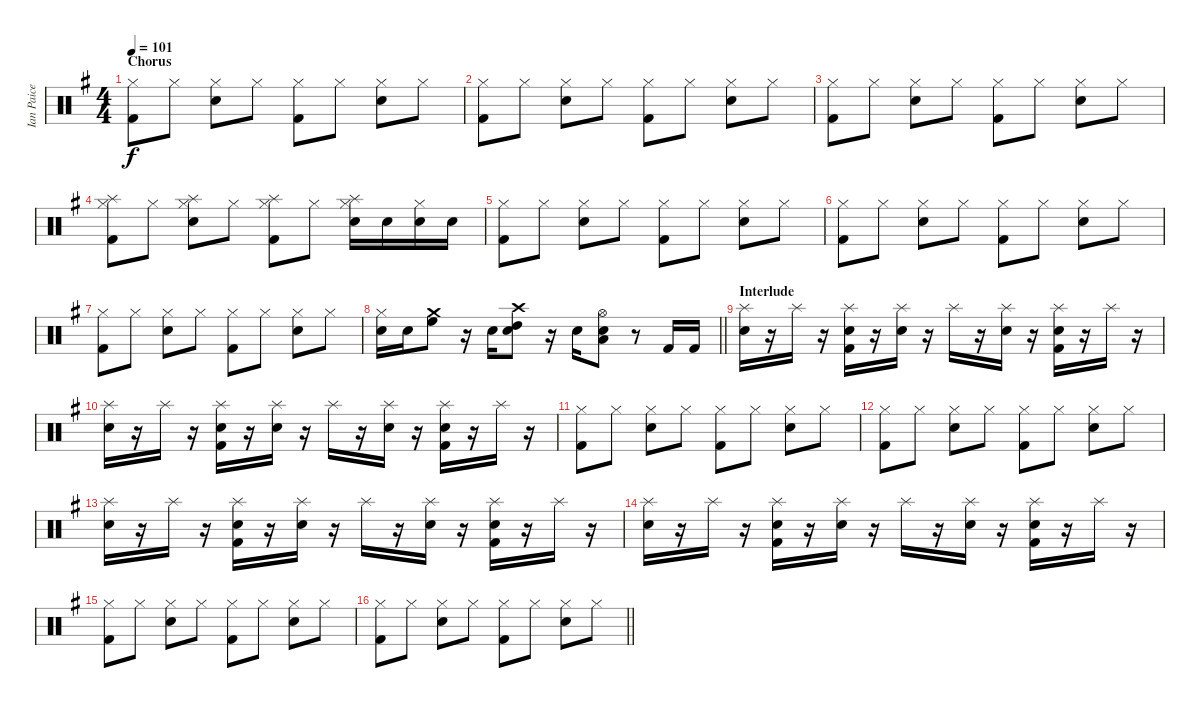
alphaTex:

\track ("Ian Paice" "Ian Paice") {instrument percussion}
\staff {score}
\articulation defaults
\ts (4 4)
\section ("" "Chorus")
\tempo 101
\clef neutral
\ks g
("Hi-Hat (closed)" "Kick (hit) 2").8{dy f} "Hi-Hat (closed)".8 ("Hi-Hat (closed)" "Snare (hit) 2").8 "Hi-Hat (closed)".8 ("Hi-Hat (closed)" "Kick (hit) 2").8 "Hi-Hat (closed)".8 ("Hi-Hat (closed)" "Snare (hit) 2").8 "Hi-Hat (closed)".8 |
("Hi-Hat (closed)" "Kick (hit) 2").8 "Hi-Hat (closed)".8 ("Hi-Hat (closed)" "Snare (hit) 2").8 "Hi-Hat (closed)".8 ("Hi-Hat (closed)" "Kick (hit) 2").8 "Hi-Hat (closed)".8 ("Hi-Hat (closed)" "Snare (hit) 2").8 "Hi-Hat (closed)".8 |
("Hi-Hat (closed)" "Kick (hit) 2").8 "Hi-Hat (closed)".8 ("Hi-Hat (closed)" "Snare (hit) 2").8 "Hi-Hat (closed)".8 ("Hi-Hat (closed)" "Kick (hit) 2").8 "Hi-Hat (closed)".8 ("Hi-Hat (closed)" "Snare (hit) 2").8 "Hi-Hat (closed)".8 |
("Splash (hit)" "Hi-Hat (closed)" "Kick (hit) 2").8 "Hi-Hat (closed)".8 ("Splash (hit)" "Hi-Hat (closed)" "Snare (hit) 2").8 "Hi-Hat (closed)".8 ("Splash (hit)" "Hi-Hat (closed)" "Kick (hit) 2").8 "Hi-Hat (closed)".8 ("Splash (hit)" "Hi-Hat (closed)" "Snare (hit) 2").16 "Snare (hit) 2".16 ("Hi-Hat (closed)" "Snare (hit) 2").16 "Snare (hit) 2".16 |
("Hi-Hat (closed)" "Kick (hit) 2").8 "Hi-Hat (closed)".8 ("Hi-Hat (closed)" "Snare (hit) 2").8 "Hi-Hat (closed)".8 ("Hi-Hat (closed)" "Kick (hit) 2").8 "Hi-Hat (closed)".8 ("Hi-Hat (closed)" "Snare (hit) 2").8 "Hi-Hat (closed)".8 |
("Hi-Hat (closed)" "Kick (hit) 2").8 "Hi-Hat (closed)".8 ("Hi-Hat (closed)" "Snare (hit) 2").8 "Hi-Hat (closed)".8 ("Hi-Hat (closed)" "Kick (hit) 2").8 "Hi-Hat (closed)".8 ("Hi-Hat (closed)" "Snare (hit) 2").8 "Hi-Hat (closed)".8 |
("Hi-Hat (closed)" "Kick (hit) 2").8 "Hi-Hat (closed)".8 ("Hi-Hat (closed)" "Snare (hit) 2").8 "Hi-Hat (closed)".8 ("Hi-Hat (closed)" "Kick (hit) 2").8 "Hi-Hat (closed)".8 ("Hi-Hat (closed)" "Snare (hit) 2").8 "Hi-Hat (closed)".8 |
\barLineRight lightlight
("Snare (hit) 2" "Hi-Hat (closed)").16 "Snare (hit) 2".16 ("Crash medium (hit)" "High Floor Tom (hit)").8 r.16 "Snare (hit) 2".16 ("Crash high (hit)" "High Tom (hit)" "Snare (hit) 2").8 r.16 "Snare (hit) 2".16 ("Hi-Hat (open)" "Low Tom (hit)" "Snare (hit) 2").8 r.8 "Kick (hit) 2".16 "Kick (hit) 2".16 |
\section ("" "Interlude")
("Splash (hit)" "Snare (hit) 2").16 r.16 "Splash (hit)".16 r.16 ("Splash (hit)" "Snare (hit) 2" "Kick (hit) 2").16 r.16 ("Splash (hit)" "Snare (hit) 2").16 r.16 "Splash (hit)".16 r.16 ("Splash (hit)" "Snare (hit) 2").16 r.16 ("Splash (hit)" "Snare (hit) 2" "Kick (hit) 2").16 r.16 "Splash (hit)".16 r.16 |
("Splash (hit)" "Snare (hit) 2").16 r.16 "Splash (hit)".16 r.16 ("Splash (hit)" "Snare (hit) 2" "Kick (hit) 2").16 r.16 ("Splash (hit)" "Snare (hit) 2").16 r.16 "Splash (hit)".16 r.16 ("Splash (hit)" "Snare (hit) 2").16 r.16 ("Splash (hit)" "Snare (hit) 2" "Kick (hit) 2").16 r.16 "Splash (hit)".16 r.16 |
("Hi-Hat (closed)" "Kick (hit) 2").8 "Hi-Hat (closed)".8 ("Hi-Hat (closed)" "Snare (hit) 2").8 "Hi-Hat (closed)".8 ("Hi-Hat (closed)" "Kick (hit) 2").8 "Hi-Hat (closed)".8 ("Hi-Hat (closed)" "Snare (hit) 2").8 "Hi-Hat (closed)".8 |
("Hi-Hat (closed)" "Kick (hit) 2").8 "Hi-Hat (closed)".8 ("Hi-Hat (closed)" "Snare (hit) 2").8 "Hi-Hat (closed)".8 ("Hi-Hat (closed)" "Kick (hit) 2").8 "Hi-Hat (closed)".8 ("Hi-Hat (closed)" "Snare (hit) 2").8 "Hi-Hat (closed)".8 |
("Splash (hit)" "Snare (hit) 2").16 r.16 "Splash (hit)".16 r.16 ("Splash (hit)" "Snare (hit) 2" "Kick (hit) 2").16 r.16 ("Splash (hit)" "Snare (hit) 2").16 r.16 "Splash (hit)".16 r.16 ("Splash (hit)" "Snare (hit) 2").16 r.16 ("Splash (hit)" "Snare (hit) 2" "Kick (hit) 2").16 r.16 "Splash (hit)".16 r.16 |
("Splash (hit)" "Snare (hit) 2").16 r.16 "Splash (hit)".16 r.16 ("Splash (hit)" "Snare (hit) 2" "Kick (hit) 2").16 r.16 ("Splash (hit)" "Snare (hit) 2").16 r.16 "Splash (hit)".16 r.16 ("Splash (hit)" "Snare (hit) 2").16 r.16 ("Splash (hit)" "Snare (hit) 2" "Kick (hit) 2").16 r.16 "Splash (hit)".16 r.16 |
("Hi-Hat (closed)" "Kick (hit) 2").8 "Hi-Hat (closed)".8 ("Hi-Hat (closed)" "Snare (hit) 2").8 "Hi-Hat (closed)".8 ("Hi-Hat (closed)" "Kick (hit) 2").8 "Hi-Hat (closed)".8 ("Hi-Hat (closed)" "Snare (hit) 2").8 "Hi-Hat (closed)".8 |
\barLineRight lightlight
("Hi-Hat (closed)" "Kick (hit) 2").8 "Hi-Hat (closed)".8 ("Hi-Hat (closed)" "Snare (hit) 2").8 "Hi-Hat (closed)".8 ("Hi-Hat (closed)" "Kick (hit) 2").8 "Hi-Hat (closed)".8 ("Hi-Hat (closed)" "Snare (hit) 2").8 "Hi-Hat (closed)".8
